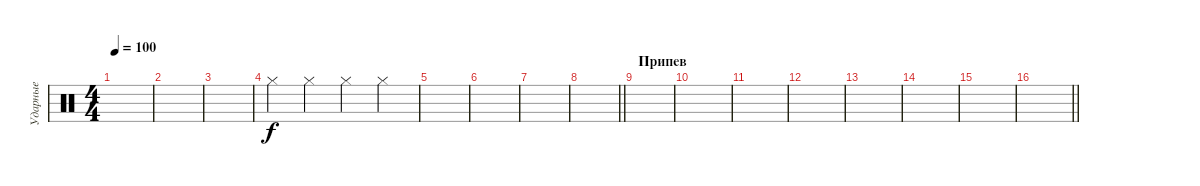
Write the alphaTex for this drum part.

\track ("Ударные" "Ударные") {instrument percussion}
\staff {score}
\articulation defaults
\ts (4 4)
\tempo 100
\clef neutral
\ks c
|
|
|
"Hi-Hat (closed)".4 "Hi-Hat (closed)".4 "Hi-Hat (closed)".4 "Hi-Hat (closed)".4 |
|
|
|
\barLineRight lightlight
|
\section ("" "Припев")
|
|
|
|
|
|
|
\barLineRight lightlight
